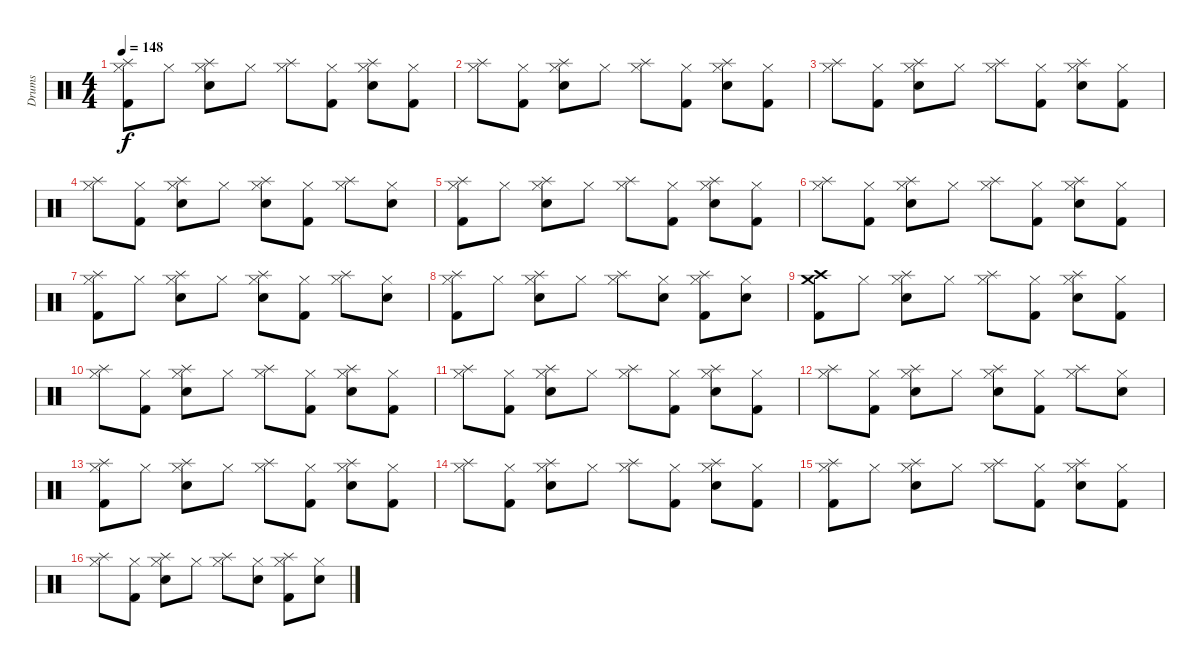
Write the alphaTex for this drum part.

\track ("Drums" "Drums") {instrument percussion}
\staff {score}
\articulation defaults
\ts (4 4)
\tempo 148
\clef neutral
\ks c
("Splash (hit)" "Hi-Hat (closed)" "Kick (hit) 2").8{dy f} "Hi-Hat (closed)".8 ("Hi-Hat (closed)" "Snare (hit) 2" "Splash (hit)").8 "Hi-Hat (closed)".8 ("Hi-Hat (closed)" "Splash (hit)").8 ("Hi-Hat (closed)" "Kick (hit) 2").8 ("Hi-Hat (closed)" "Snare (hit) 2" "Splash (hit)").8 ("Hi-Hat (closed)" "Kick (hit) 2").8 |
("Hi-Hat (closed)" "Splash (hit)").8 ("Hi-Hat (closed)" "Kick (hit) 2").8 ("Hi-Hat (closed)" "Splash (hit)" "Snare (hit) 2").8{volume 13 balance 8} "Hi-Hat (closed)".8 ("Hi-Hat (closed)" "Splash (hit)").8 ("Hi-Hat (closed)" "Kick (hit) 2").8 ("Hi-Hat (closed)" "Snare (hit) 2" "Splash (hit)").8 ("Hi-Hat (closed)" "Kick (hit) 2").8 |
("Hi-Hat (closed)" "Splash (hit)").8 ("Hi-Hat (closed)" "Kick (hit) 2").8 ("Hi-Hat (closed)" "Splash (hit)" "Snare (hit) 2").8 "Hi-Hat (closed)".8 ("Hi-Hat (closed)" "Splash (hit)").8 ("Hi-Hat (closed)" "Kick (hit) 2").8 ("Hi-Hat (closed)" "Snare (hit) 2" "Splash (hit)").8 ("Hi-Hat (closed)" "Kick (hit) 2").8 |
("Hi-Hat (closed)" "Splash (hit)").8 ("Hi-Hat (closed)" "Kick (hit) 2").8 ("Hi-Hat (closed)" "Splash (hit)" "Snare (hit) 2").8 "Hi-Hat (closed)".8 ("Hi-Hat (closed)" "Snare (hit) 2" "Splash (hit)").8 ("Hi-Hat (closed)" "Kick (hit) 2").8 ("Hi-Hat (closed)" "Splash (hit)").8 ("Hi-Hat (closed)" "Snare (hit) 2").8 |
("Hi-Hat (closed)" "Splash (hit)" "Kick (hit) 2").8 "Hi-Hat (closed)".8 ("Hi-Hat (closed)" "Splash (hit)" "Snare (hit) 2").8 "Hi-Hat (closed)".8 ("Hi-Hat (closed)" "Splash (hit)").8 ("Hi-Hat (closed)" "Kick (hit) 2").8 ("Hi-Hat (closed)" "Snare (hit) 2" "Splash (hit)").8 ("Hi-Hat (closed)" "Kick (hit) 2").8 |
("Hi-Hat (closed)" "Splash (hit)").8 ("Hi-Hat (closed)" "Kick (hit) 2").8 ("Hi-Hat (closed)" "Snare (hit) 2" "Splash (hit)").8 "Hi-Hat (closed)".8 ("Hi-Hat (closed)" "Splash (hit)").8 ("Hi-Hat (closed)" "Kick (hit) 2").8 ("Hi-Hat (closed)" "Snare (hit) 2" "Splash (hit)").8 ("Hi-Hat (closed)" "Kick (hit) 2").8 |
("Hi-Hat (closed)" "Kick (hit) 2" "Splash (hit)").8 "Hi-Hat (closed)".8 ("Hi-Hat (closed)" "Snare (hit) 2" "Splash (hit)").8 "Hi-Hat (closed)".8 ("Hi-Hat (closed)" "Snare (hit) 2" "Splash (hit)").8 ("Hi-Hat (closed)" "Kick (hit) 2").8 ("Hi-Hat (closed)" "Splash (hit)").8 ("Hi-Hat (closed)" "Snare (hit) 2").8 |
("Hi-Hat (closed)" "Kick (hit) 2" "Splash (hit)").8 "Hi-Hat (closed)".8 ("Hi-Hat (closed)" "Snare (hit) 2" "Splash (hit)").8 "Hi-Hat (closed)".8 ("Hi-Hat (closed)" "Splash (hit)").8 ("Hi-Hat (closed)" "Snare (hit) 2").8 ("Hi-Hat (closed)" "Kick (hit) 2" "Splash (hit)").8 ("Hi-Hat (closed)" "Snare (hit) 2").8 |
("Crash medium (hit)" "Crash high (hit)" "Kick (hit) 2").8 "Hi-Hat (closed)".8 ("Hi-Hat (closed)" "Snare (hit) 2" "Splash (hit)").8 "Hi-Hat (closed)".8 ("Hi-Hat (closed)" "Splash (hit)").8 ("Hi-Hat (closed)" "Kick (hit) 2").8 ("Hi-Hat (closed)" "Snare (hit) 2" "Splash (hit)").8 ("Hi-Hat (closed)" "Kick (hit) 2").8 |
("Hi-Hat (closed)" "Splash (hit)").8 ("Hi-Hat (closed)" "Kick (hit) 2").8 ("Hi-Hat (closed)" "Splash (hit)" "Snare (hit) 2").8{volume 13 balance 8} "Hi-Hat (closed)".8 ("Hi-Hat (closed)" "Splash (hit)").8 ("Hi-Hat (closed)" "Kick (hit) 2").8 ("Hi-Hat (closed)" "Snare (hit) 2" "Splash (hit)").8 ("Hi-Hat (closed)" "Kick (hit) 2").8 |
("Hi-Hat (closed)" "Splash (hit)").8 ("Hi-Hat (closed)" "Kick (hit) 2").8 ("Hi-Hat (closed)" "Splash (hit)" "Snare (hit) 2").8 "Hi-Hat (closed)".8 ("Hi-Hat (closed)" "Splash (hit)").8 ("Hi-Hat (closed)" "Kick (hit) 2").8 ("Hi-Hat (closed)" "Snare (hit) 2" "Splash (hit)").8 ("Hi-Hat (closed)" "Kick (hit) 2").8 |
("Hi-Hat (closed)" "Splash (hit)").8 ("Hi-Hat (closed)" "Kick (hit) 2").8 ("Hi-Hat (closed)" "Splash (hit)" "Snare (hit) 2").8 "Hi-Hat (closed)".8 ("Hi-Hat (closed)" "Snare (hit) 2" "Splash (hit)").8 ("Hi-Hat (closed)" "Kick (hit) 2").8 ("Hi-Hat (closed)" "Splash (hit)").8 ("Hi-Hat (closed)" "Snare (hit) 2").8 |
("Hi-Hat (closed)" "Splash (hit)" "Kick (hit) 2").8 "Hi-Hat (closed)".8 ("Hi-Hat (closed)" "Splash (hit)" "Snare (hit) 2").8 "Hi-Hat (closed)".8 ("Hi-Hat (closed)" "Splash (hit)").8 ("Hi-Hat (closed)" "Kick (hit) 2").8 ("Hi-Hat (closed)" "Snare (hit) 2" "Splash (hit)").8 ("Hi-Hat (closed)" "Kick (hit) 2").8 |
("Hi-Hat (closed)" "Splash (hit)").8 ("Hi-Hat (closed)" "Kick (hit) 2").8 ("Hi-Hat (closed)" "Snare (hit) 2" "Splash (hit)").8 "Hi-Hat (closed)".8 ("Hi-Hat (closed)" "Splash (hit)").8 ("Hi-Hat (closed)" "Kick (hit) 2").8 ("Hi-Hat (closed)" "Snare (hit) 2" "Splash (hit)").8 ("Hi-Hat (closed)" "Kick (hit) 2").8 |
("Hi-Hat (closed)" "Kick (hit) 2" "Splash (hit)").8 "Hi-Hat (closed)".8 ("Hi-Hat (closed)" "Snare (hit) 2" "Splash (hit)").8 "Hi-Hat (closed)".8 ("Hi-Hat (closed)" "Splash (hit)").8 ("Hi-Hat (closed)" "Kick (hit) 2").8 ("Hi-Hat (closed)" "Snare (hit) 2" "Splash (hit)").8 ("Hi-Hat (closed)" "Kick (hit) 2").8 |
("Hi-Hat (closed)" "Splash (hit)").8 ("Hi-Hat (closed)" "Kick (hit) 2").8 ("Hi-Hat (closed)" "Snare (hit) 2" "Splash (hit)").8 "Hi-Hat (closed)".8 ("Hi-Hat (closed)" "Splash (hit)").8 ("Hi-Hat (closed)" "Snare (hit) 2").8 ("Hi-Hat (closed)" "Kick (hit) 2" "Splash (hit)").8 ("Hi-Hat (closed)" "Snare (hit) 2").8
